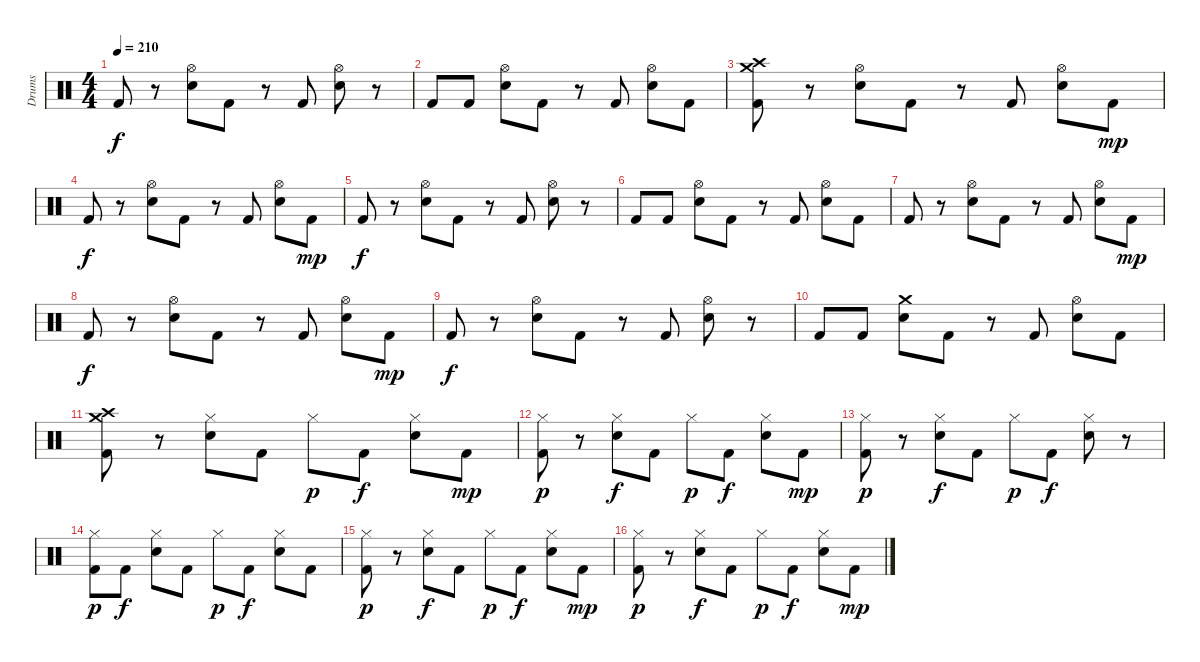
\track ("Drums" "Drums") {instrument percussion}
\staff {score}
\articulation defaults
\ts (4 4)
\tempo 210
\clef neutral
\ks c "Kick (hit) 2".8{dy f}
r.8 ("Hi-Hat (open)" "Electric Snare (hit)").8 "Kick (hit) 2".8 r.8 "Kick (hit) 2".8 ("Hi-Hat (open)" "Electric Snare (hit)").8 r.8 |
"Kick (hit) 2".8 "Kick (hit) 2".8 ("Hi-Hat (open)" "Electric Snare (hit)").8 "Kick (hit) 2".8 r.8 "Kick (hit) 2".8 ("Hi-Hat (open)" "Electric Snare (hit)").8 "Kick (hit) 2".8 |
("Crash high (hit)" "Crash medium (hit)" "Kick (hit) 2").8 r.8 ("Hi-Hat (open)" "Electric Snare (hit)").8 "Kick (hit) 2".8 r.8 "Kick (hit) 2".8 ("Hi-Hat (open)" "Electric Snare (hit)").8 "Kick (hit) 2".8{dy mp} |
"Kick (hit) 2".8{dy f} r.8 ("Hi-Hat (open)" "Electric Snare (hit)").8 "Kick (hit) 2".8 r.8 "Kick (hit) 2".8 ("Hi-Hat (open)" "Electric Snare (hit)").8 "Kick (hit) 2".8{dy mp} |
"Kick (hit) 2".8{dy f} r.8 ("Hi-Hat (open)" "Electric Snare (hit)").8 "Kick (hit) 2".8 r.8 "Kick (hit) 2".8 ("Hi-Hat (open)" "Electric Snare (hit)").8 r.8 |
"Kick (hit) 2".8 "Kick (hit) 2".8 ("Hi-Hat (open)" "Electric Snare (hit)").8 "Kick (hit) 2".8 r.8 "Kick (hit) 2".8 ("Hi-Hat (open)" "Electric Snare (hit)").8 "Kick (hit) 2".8 |
"Kick (hit) 2".8 r.8 ("Hi-Hat (open)" "Electric Snare (hit)").8 "Kick (hit) 2".8 r.8 "Kick (hit) 2".8 ("Hi-Hat (open)" "Electric Snare (hit)").8 "Kick (hit) 2".8{dy mp} |
"Kick (hit) 2".8{dy f} r.8 ("Hi-Hat (open)" "Electric Snare (hit)").8 "Kick (hit) 2".8 r.8 "Kick (hit) 2".8 ("Hi-Hat (open)" "Electric Snare (hit)").8 "Kick (hit) 2".8{dy mp} |
"Kick (hit) 2".8{dy f} r.8 ("Hi-Hat (open)" "Electric Snare (hit)").8 "Kick (hit) 2".8 r.8 "Kick (hit) 2".8 ("Hi-Hat (open)" "Electric Snare (hit)").8 r.8 |
"Kick (hit) 2".8 "Kick (hit) 2".8 ("Crash medium (hit)" "Electric Snare (hit)").8 "Kick (hit) 2".8 r.8 "Kick (hit) 2".8 ("Hi-Hat (open)" "Electric Snare (hit)").8 "Kick (hit) 2".8 |
("Crash high (hit)" "Crash medium (hit)" "Kick (hit) 2").8 r.8 ("Hi-Hat (closed)" "Electric Snare (hit)").8 "Kick (hit) 2".8 "Hi-Hat (closed)".8{dy p} "Kick (hit) 2".8{dy f} ("Hi-Hat (closed)" "Electric Snare (hit)").8 "Kick (hit) 2".8{dy mp} |
("Hi-Hat (closed)" "Kick (hit) 2").8{dy p} r.8 ("Hi-Hat (closed)" "Electric Snare (hit)").8{dy f} "Kick (hit) 2".8 "Hi-Hat (closed)".8{dy p} "Kick (hit) 2".8{dy f} ("Hi-Hat (closed)" "Electric Snare (hit)").8 "Kick (hit) 2".8{dy mp} |
("Hi-Hat (closed)" "Kick (hit) 2").8{dy p} r.8 ("Hi-Hat (closed)" "Electric Snare (hit)").8{dy f} "Kick (hit) 2".8 "Hi-Hat (closed)".8{dy p} "Kick (hit) 2".8{dy f} ("Hi-Hat (closed)" "Electric Snare (hit)").8 r.8 |
("Hi-Hat (closed)" "Kick (hit) 2").8{dy p} "Kick (hit) 2".8{dy f} ("Hi-Hat (closed)" "Electric Snare (hit)").8 "Kick (hit) 2".8 "Hi-Hat (closed)".8{dy p} "Kick (hit) 2".8{dy f} ("Hi-Hat (closed)" "Electric Snare (hit)").8 "Kick (hit) 2".8 |
("Hi-Hat (closed)" "Kick (hit) 2").8{dy p} r.8 ("Hi-Hat (closed)" "Electric Snare (hit)").8{dy f} "Kick (hit) 2".8 "Hi-Hat (closed)".8{dy p} "Kick (hit) 2".8{dy f} ("Hi-Hat (closed)" "Electric Snare (hit)").8 "Kick (hit) 2".8{dy mp} |
("Hi-Hat (closed)" "Kick (hit) 2").8{dy p} r.8 ("Hi-Hat (closed)" "Electric Snare (hit)").8{dy f} "Kick (hit) 2".8 "Hi-Hat (closed)".8{dy p} "Kick (hit) 2".8{dy f} ("Hi-Hat (closed)" "Electric Snare (hit)").8 "Kick (hit) 2".8{dy mp}
